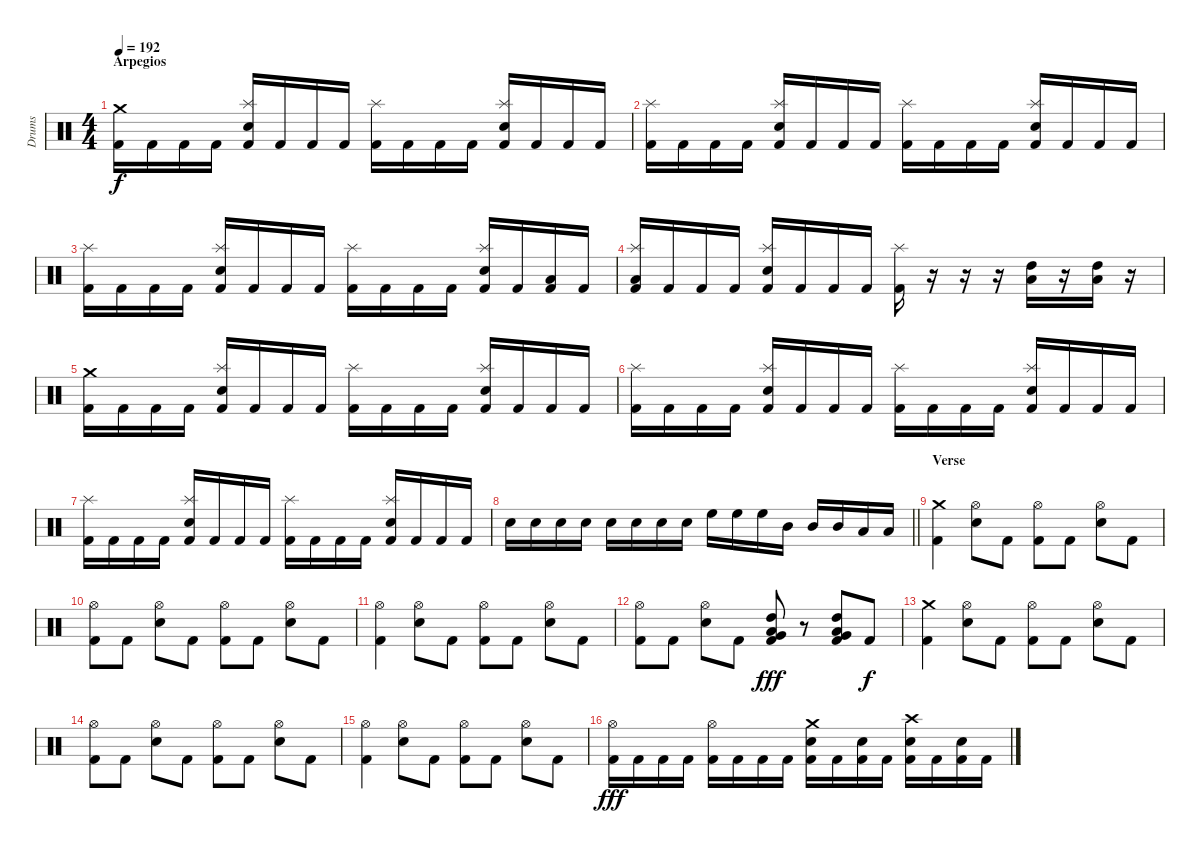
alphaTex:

\track ("Drums" "Drums") {instrument percussion}
\staff {score}
\articulation defaults
\ts (4 4)
\section ("" "Arpegios")
\tempo 192
\clef neutral
\ks c
("Crash medium (hit)" "Kick (hit) 2").16{dy f} "Kick (hit) 2".16 "Kick (hit) 2".16 "Kick (hit) 2".16 ("Splash (hit)" "Electric Snare (hit)" "Kick (hit) 2").16 "Kick (hit) 2".16 "Kick (hit) 2".16 "Kick (hit) 2".16 ("Splash (hit)" "Kick (hit) 2").16 "Kick (hit) 2".16 "Kick (hit) 2".16 "Kick (hit) 2".16 ("Splash (hit)" "Electric Snare (hit)" "Kick (hit) 2").16 "Kick (hit) 2".16 "Kick (hit) 2".16 "Kick (hit) 2".16 |
("Splash (hit)" "Kick (hit) 2").16 "Kick (hit) 2".16 "Kick (hit) 2".16 "Kick (hit) 2".16 ("Splash (hit)" "Electric Snare (hit)" "Kick (hit) 2").16 "Kick (hit) 2".16 "Kick (hit) 2".16 "Kick (hit) 2".16 ("Splash (hit)" "Kick (hit) 2").16 "Kick (hit) 2".16 "Kick (hit) 2".16 "Kick (hit) 2".16 ("Splash (hit)" "Electric Snare (hit)" "Kick (hit) 2").16 "Kick (hit) 2".16 "Kick (hit) 2".16 "Kick (hit) 2".16 |
("Splash (hit)" "Kick (hit) 2").16 "Kick (hit) 2".16 "Kick (hit) 2".16 "Kick (hit) 2".16 ("Splash (hit)" "Electric Snare (hit)" "Kick (hit) 2").16 "Kick (hit) 2".16 "Kick (hit) 2".16 "Kick (hit) 2".16 ("Splash (hit)" "Kick (hit) 2").16 "Kick (hit) 2".16 "Kick (hit) 2".16 "Kick (hit) 2".16 ("Splash (hit)" "Electric Snare (hit)" "Kick (hit) 2").16 "Kick (hit) 2".16 ("Low Tom (hit)" "Kick (hit) 2").16 "Kick (hit) 2".16 |
("Splash (hit)" "Low Tom (hit)" "Kick (hit) 2").16 "Kick (hit) 2".16 "Kick (hit) 2".16 "Kick (hit) 2".16 ("Splash (hit)" "Electric Snare (hit)" "Kick (hit) 2").16 "Kick (hit) 2".16 "Kick (hit) 2".16 "Kick (hit) 2".16 ("Splash (hit)" "Kick (hit) 2").16 r.16 r.16 r.16 ("High Tom (hit)" "Low Tom (hit)").16 r.16 ("High Tom (hit)" "Low Tom (hit)").16 r.16 |
("Crash medium (hit)" "Kick (hit) 2").16 "Kick (hit) 2".16 "Kick (hit) 2".16 "Kick (hit) 2".16 ("Splash (hit)" "Electric Snare (hit)" "Kick (hit) 2").16 "Kick (hit) 2".16 "Kick (hit) 2".16 "Kick (hit) 2".16 ("Splash (hit)" "Kick (hit) 2").16 "Kick (hit) 2".16 "Kick (hit) 2".16 "Kick (hit) 2".16 ("Splash (hit)" "Electric Snare (hit)" "Kick (hit) 2").16 "Kick (hit) 2".16 "Kick (hit) 2".16 "Kick (hit) 2".16 |
("Splash (hit)" "Kick (hit) 2").16 "Kick (hit) 2".16 "Kick (hit) 2".16 "Kick (hit) 2".16 ("Splash (hit)" "Electric Snare (hit)" "Kick (hit) 2").16 "Kick (hit) 2".16 "Kick (hit) 2".16 "Kick (hit) 2".16 ("Splash (hit)" "Kick (hit) 2").16 "Kick (hit) 2".16 "Kick (hit) 2".16 "Kick (hit) 2".16 ("Splash (hit)" "Electric Snare (hit)" "Kick (hit) 2").16 "Kick (hit) 2".16 "Kick (hit) 2".16 "Kick (hit) 2".16 |
("Splash (hit)" "Kick (hit) 2").16 "Kick (hit) 2".16 "Kick (hit) 2".16 "Kick (hit) 2".16 ("Splash (hit)" "Electric Snare (hit)" "Kick (hit) 2").16 "Kick (hit) 2".16 "Kick (hit) 2".16 "Kick (hit) 2".16 ("Splash (hit)" "Kick (hit) 2").16 "Kick (hit) 2".16 "Kick (hit) 2".16 "Kick (hit) 2".16 ("Splash (hit)" "Electric Snare (hit)" "Kick (hit) 2").16 "Kick (hit) 2".16 "Kick (hit) 2".16 "Kick (hit) 2".16 |
\barLineRight lightlight "Electric Snare (hit)".16 "Electric Snare (hit)".16 "Electric Snare (hit)".16 "Electric Snare (hit)".16 "Electric Snare (hit)".16 "Electric Snare (hit)".16 "Electric Snare (hit)".16 "Electric Snare (hit)".16 "High Floor Tom (hit)".16 "High Floor Tom (hit)".16 "High Floor Tom (hit)".16 "Mid Tom (hit)".16 "Mid Tom (hit)".16 "Mid Tom (hit)".16 "Low Tom (hit)".16 "Low Tom (hit)".16
|
\section ("" "Verse")
("Crash medium (hit)" "Kick (hit) 2").4 ("Hi-Hat (open)" "Electric Snare (hit)").8 "Kick (hit) 2".8 ("Hi-Hat (open)" "Kick (hit) 2").8 "Kick (hit) 2".8 ("Hi-Hat (open)" "Electric Snare (hit)").8 "Kick (hit) 2".8 |
("Hi-Hat (open)" "Kick (hit) 2").8 "Kick (hit) 2".8 ("Hi-Hat (open)" "Electric Snare (hit)").8 "Kick (hit) 2".8 ("Hi-Hat (open)" "Kick (hit) 2").8 "Kick (hit) 2".8 ("Hi-Hat (open)" "Electric Snare (hit)").8 "Kick (hit) 2".8 |
("Hi-Hat (open)" "Kick (hit) 2").4 ("Hi-Hat (open)" "Electric Snare (hit)").8 "Kick (hit) 2".8 ("Hi-Hat (open)" "Kick (hit) 2").8 "Kick (hit) 2".8 ("Hi-Hat (open)" "Electric Snare (hit)").8 "Kick (hit) 2".8 |
("Hi-Hat (open)" "Kick (hit) 2").8 "Kick (hit) 2".8 ("Hi-Hat (open)" "Electric Snare (hit)").8 "Kick (hit) 2".8 ("High Tom (hit)" "Low Tom (hit)" "Very Low Tom (hit)" "Kick (hit) 2").8{dy fff} r.8 ("High Tom (hit)" "Low Tom (hit)" "Very Low Tom (hit)" "Kick (hit) 2").8 "Kick (hit) 2".8{dy f} |
("Crash medium (hit)" "Kick (hit) 2").4 ("Hi-Hat (open)" "Electric Snare (hit)").8 "Kick (hit) 2".8 ("Hi-Hat (open)" "Kick (hit) 2").8 "Kick (hit) 2".8 ("Hi-Hat (open)" "Electric Snare (hit)").8 "Kick (hit) 2".8 |
("Hi-Hat (open)" "Kick (hit) 2").8 "Kick (hit) 2".8 ("Hi-Hat (open)" "Electric Snare (hit)").8 "Kick (hit) 2".8 ("Hi-Hat (open)" "Kick (hit) 2").8 "Kick (hit) 2".8 ("Hi-Hat (open)" "Electric Snare (hit)").8 "Kick (hit) 2".8 |
("Hi-Hat (open)" "Kick (hit) 2").4 ("Hi-Hat (open)" "Electric Snare (hit)").8 "Kick (hit) 2".8 ("Hi-Hat (open)" "Kick (hit) 2").8 "Kick (hit) 2".8 ("Hi-Hat (open)" "Electric Snare (hit)").8 "Kick (hit) 2".8 |
("Hi-Hat (open)" "Kick (hit) 2").16{dy fff} "Kick (hit) 2".16 "Kick (hit) 2".16 "Kick (hit) 2".16 ("Hi-Hat (open)" "Kick (hit) 2").16 "Kick (hit) 2".16 "Kick (hit) 2".16 "Kick (hit) 2".16 ("Crash medium (hit)" "Electric Snare (hit)" "Kick (hit) 2").16 "Kick (hit) 2".16 ("Electric Snare (hit)" "Kick (hit) 2").16 "Kick (hit) 2".16 ("Crash high (hit)" "Electric Snare (hit)" "Kick (hit) 2").16 "Kick (hit) 2".16 ("Electric Snare (hit)" "Kick (hit) 2").16 "Kick (hit) 2".16
